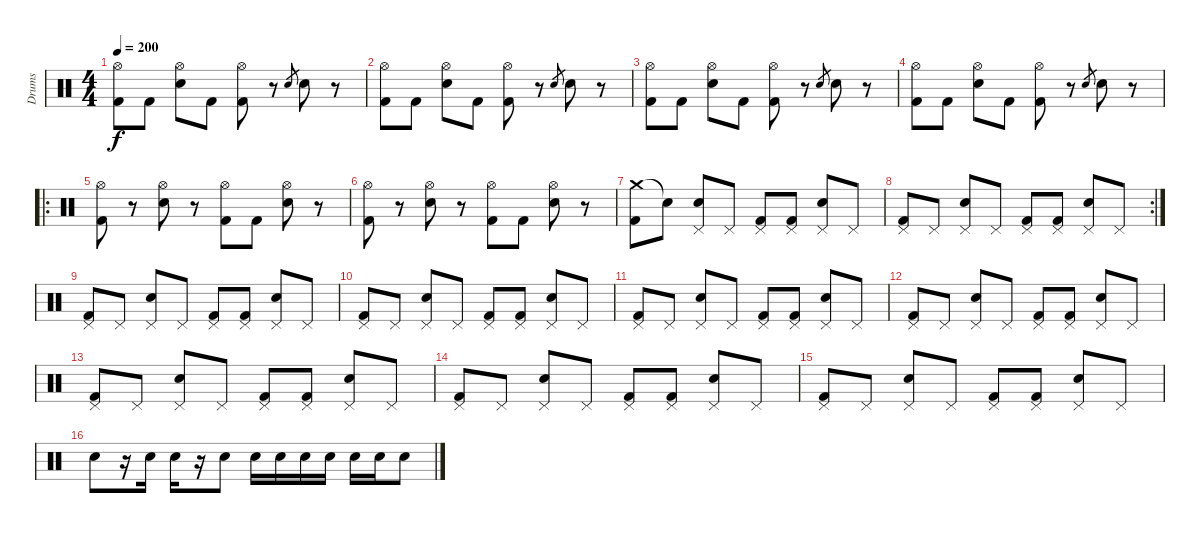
\track ("Drums" "Drums") {instrument percussion}
\staff {score}
\articulation defaults
\ts (4 4)
\tempo 200
\clef neutral
\ks c
("Hi-Hat (open)" "Kick (hit) 2").8{dy f} "Kick (hit) 2".8 ("Hi-Hat (open)" "Snare (hit) 2").8 "Kick (hit) 2".8 ("Hi-Hat (open)" "Kick (hit) 2").8 r.8 "Snare (hit) 2".8{gr} "Snare (hit) 2".8 r.8 |
("Hi-Hat (open)" "Kick (hit) 2").8 "Kick (hit) 2".8 ("Hi-Hat (open)" "Snare (hit) 2").8 "Kick (hit) 2".8 ("Hi-Hat (open)" "Kick (hit) 2").8 r.8 "Snare (hit) 2".8{gr} "Snare (hit) 2".8 r.8 |
("Hi-Hat (open)" "Kick (hit) 2").8 "Kick (hit) 2".8 ("Hi-Hat (open)" "Snare (hit) 2").8 "Kick (hit) 2".8 ("Hi-Hat (open)" "Kick (hit) 2").8 r.8 "Snare (hit) 2".8{gr} "Snare (hit) 2".8 r.8 |
("Hi-Hat (open)" "Kick (hit) 2").8 "Kick (hit) 2".8 ("Hi-Hat (open)" "Snare (hit) 2").8 "Kick (hit) 2".8 ("Hi-Hat (open)" "Kick (hit) 2").8 r.8 "Snare (hit) 2".8{gr} "Snare (hit) 2".8 r.8 |
\ro
("Hi-Hat (open)" "Kick (hit) 2").8 r.8 ("Hi-Hat (open)" "Snare (hit) 2").8 r.8 ("Hi-Hat (open)" "Kick (hit) 2").8 "Kick (hit) 2".8 ("Hi-Hat (open)" "Snare (hit) 2").8 r.8 |
("Hi-Hat (open)" "Kick (hit) 2").8 r.8 ("Hi-Hat (open)" "Snare (hit) 2").8 r.8 ("Hi-Hat (open)" "Kick (hit) 2").8 "Kick (hit) 2".8 ("Hi-Hat (open)" "Snare (hit) 2").8 r.8 |
("Crash medium (hit)" "Kick (hit) 2").8 "Snare (hit)"{t}.8 ("Pedal Hi-Hat (hit)" "Snare (hit) 2").8 "Pedal Hi-Hat (hit)".8 ("Pedal Hi-Hat (hit)" "Kick (hit) 2").8 ("Pedal Hi-Hat (hit)" "Kick (hit) 2").8 ("Pedal Hi-Hat (hit)" "Snare (hit) 2").8 "Pedal Hi-Hat (hit)".8 |
\rc 2
("Pedal Hi-Hat (hit)" "Kick (hit) 2").8 "Pedal Hi-Hat (hit)".8 ("Pedal Hi-Hat (hit)" "Snare (hit) 2").8 "Pedal Hi-Hat (hit)".8 ("Pedal Hi-Hat (hit)" "Kick (hit) 2").8 ("Pedal Hi-Hat (hit)" "Kick (hit) 2").8 ("Pedal Hi-Hat (hit)" "Snare (hit) 2").8 "Pedal Hi-Hat (hit)".8 |
("Pedal Hi-Hat (hit)" "Kick (hit) 2").8 "Pedal Hi-Hat (hit)".8 ("Pedal Hi-Hat (hit)" "Snare (hit) 2").8 "Pedal Hi-Hat (hit)".8 ("Pedal Hi-Hat (hit)" "Kick (hit) 2").8 ("Pedal Hi-Hat (hit)" "Kick (hit) 2").8 ("Pedal Hi-Hat (hit)" "Snare (hit) 2").8 "Pedal Hi-Hat (hit)".8 |
("Pedal Hi-Hat (hit)" "Kick (hit) 2").8 "Pedal Hi-Hat (hit)".8 ("Pedal Hi-Hat (hit)" "Snare (hit) 2").8 "Pedal Hi-Hat (hit)".8 ("Pedal Hi-Hat (hit)" "Kick (hit) 2").8 ("Pedal Hi-Hat (hit)" "Kick (hit) 2").8 ("Pedal Hi-Hat (hit)" "Snare (hit) 2").8 "Pedal Hi-Hat (hit)".8 |
("Pedal Hi-Hat (hit)" "Kick (hit) 2").8 "Pedal Hi-Hat (hit)".8 ("Pedal Hi-Hat (hit)" "Snare (hit) 2").8 "Pedal Hi-Hat (hit)".8 ("Pedal Hi-Hat (hit)" "Kick (hit) 2").8 ("Pedal Hi-Hat (hit)" "Kick (hit) 2").8 ("Pedal Hi-Hat (hit)" "Snare (hit) 2").8 "Pedal Hi-Hat (hit)".8 |
("Pedal Hi-Hat (hit)" "Kick (hit) 2").8 "Pedal Hi-Hat (hit)".8 ("Pedal Hi-Hat (hit)" "Snare (hit) 2").8 "Pedal Hi-Hat (hit)".8 ("Pedal Hi-Hat (hit)" "Kick (hit) 2").8 ("Pedal Hi-Hat (hit)" "Kick (hit) 2").8 ("Pedal Hi-Hat (hit)" "Snare (hit) 2").8 "Pedal Hi-Hat (hit)".8 |
("Pedal Hi-Hat (hit)" "Kick (hit) 2").8 "Pedal Hi-Hat (hit)".8 ("Pedal Hi-Hat (hit)" "Snare (hit) 2").8 "Pedal Hi-Hat (hit)".8 ("Pedal Hi-Hat (hit)" "Kick (hit) 2").8 ("Pedal Hi-Hat (hit)" "Kick (hit) 2").8 ("Pedal Hi-Hat (hit)" "Snare (hit) 2").8 "Pedal Hi-Hat (hit)".8 |
("Pedal Hi-Hat (hit)" "Kick (hit) 2").8 "Pedal Hi-Hat (hit)".8 ("Pedal Hi-Hat (hit)" "Snare (hit) 2").8 "Pedal Hi-Hat (hit)".8 ("Pedal Hi-Hat (hit)" "Kick (hit) 2").8 ("Pedal Hi-Hat (hit)" "Kick (hit) 2").8 ("Pedal Hi-Hat (hit)" "Snare (hit) 2").8 "Pedal Hi-Hat (hit)".8 |
("Pedal Hi-Hat (hit)" "Kick (hit) 2").8 "Pedal Hi-Hat (hit)".8 ("Pedal Hi-Hat (hit)" "Snare (hit) 2").8 "Pedal Hi-Hat (hit)".8 ("Pedal Hi-Hat (hit)" "Kick (hit) 2").8 ("Pedal Hi-Hat (hit)" "Kick (hit) 2").8 ("Pedal Hi-Hat (hit)" "Snare (hit) 2").8 "Pedal Hi-Hat (hit)".8 |
"Snare (hit) 2".8 r.16 "Snare (hit) 2".16 "Snare (hit) 2".16 r.16 "Snare (hit) 2".8 "Snare (hit) 2".16 "Snare (hit) 2".16 "Snare (hit) 2".16 "Snare (hit) 2".16 "Snare (hit) 2".16 "Snare (hit) 2".16 "Snare (hit) 2".8
